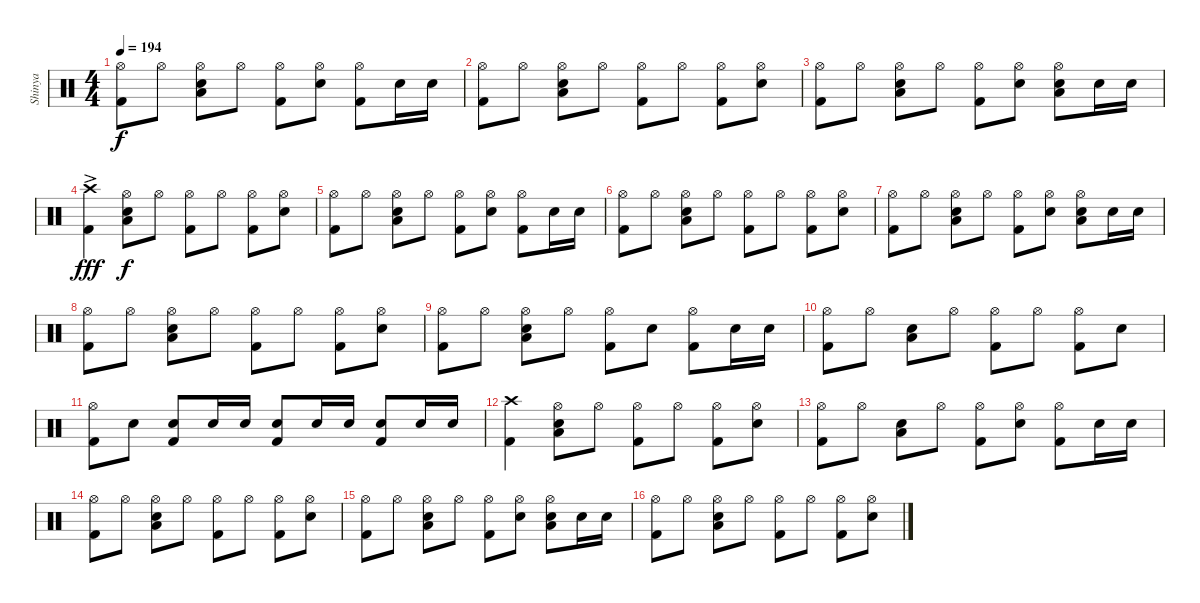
\track ("Shinya" "Shinya") {instrument percussion}
\staff {score}
\articulation defaults
\ts (4 4)
\tempo 194
\clef neutral
\ks c
("Hi-Hat (open)" "Kick (hit) 2").8{dy f} "Hi-Hat (open)".8 ("Hi-Hat (open)" "Snare (hit) 2" "Low Floor Tom (hit)").8 "Hi-Hat (open)".8 ("Hi-Hat (open)" "Kick (hit) 2").8 ("Hi-Hat (open)" "Snare (hit) 2").8 ("Hi-Hat (open)" "Kick (hit) 2").8 "Snare (hit) 2".16 "Snare (hit) 2".16 |
("Hi-Hat (open)" "Kick (hit) 2").8 "Hi-Hat (open)".8 ("Hi-Hat (open)" "Snare (hit) 2" "Low Floor Tom (hit)").8 "Hi-Hat (open)".8 ("Hi-Hat (open)" "Kick (hit) 2").8 "Hi-Hat (open)".8 ("Hi-Hat (open)" "Kick (hit) 2").8 ("Hi-Hat (open)" "Snare (hit) 2").8 |
("Hi-Hat (open)" "Kick (hit) 2").8 "Hi-Hat (open)".8 ("Hi-Hat (open)" "Snare (hit) 2" "Low Floor Tom (hit)").8 "Hi-Hat (open)".8 ("Hi-Hat (open)" "Kick (hit) 2").8 ("Hi-Hat (open)" "Snare (hit) 2").8 ("Hi-Hat (open)" "Snare (hit) 2" "Low Floor Tom (hit)").8 "Snare (hit) 2".16 "Snare (hit) 2".16 |
("Crash high (hit)"{ac} "Kick (hit) 2").4{dy fff} ("Hi-Hat (open)" "Snare (hit) 2" "Low Floor Tom (hit)").8{dy f} "Hi-Hat (open)".8 ("Hi-Hat (open)" "Kick (hit) 2").8 "Hi-Hat (open)".8 ("Hi-Hat (open)" "Kick (hit) 2").8 ("Hi-Hat (open)" "Snare (hit) 2").8 |
("Hi-Hat (open)" "Kick (hit) 2").8 "Hi-Hat (open)".8 ("Hi-Hat (open)" "Snare (hit) 2" "Low Floor Tom (hit)").8 "Hi-Hat (open)".8 ("Hi-Hat (open)" "Kick (hit) 2").8 ("Hi-Hat (open)" "Snare (hit) 2").8 ("Hi-Hat (open)" "Kick (hit) 2").8 "Snare (hit) 2".16 "Snare (hit) 2".16 |
("Hi-Hat (open)" "Kick (hit) 2").8 "Hi-Hat (open)".8 ("Hi-Hat (open)" "Snare (hit) 2" "Low Floor Tom (hit)").8 "Hi-Hat (open)".8 ("Hi-Hat (open)" "Kick (hit) 2").8 "Hi-Hat (open)".8 ("Hi-Hat (open)" "Kick (hit) 2").8 ("Hi-Hat (open)" "Snare (hit) 2").8 |
("Hi-Hat (open)" "Kick (hit) 2").8 "Hi-Hat (open)".8 ("Hi-Hat (open)" "Snare (hit) 2" "Low Floor Tom (hit)").8 "Hi-Hat (open)".8 ("Hi-Hat (open)" "Kick (hit) 2").8 ("Hi-Hat (open)" "Snare (hit) 2").8 ("Hi-Hat (open)" "Snare (hit) 2" "Low Floor Tom (hit)").8 "Snare (hit) 2".16 "Snare (hit) 2".16 |
("Hi-Hat (open)" "Kick (hit) 2").8 "Hi-Hat (open)".8 ("Hi-Hat (open)" "Snare (hit) 2" "Low Floor Tom (hit)").8 "Hi-Hat (open)".8 ("Hi-Hat (open)" "Kick (hit) 2").8 "Hi-Hat (open)".8 ("Hi-Hat (open)" "Kick (hit) 2").8 ("Hi-Hat (open)" "Snare (hit) 2").8 |
("Hi-Hat (open)" "Kick (hit) 2").8 "Hi-Hat (open)".8 ("Hi-Hat (open)" "Snare (hit) 2" "Low Floor Tom (hit)").8 "Hi-Hat (open)".8 ("Hi-Hat (open)" "Kick (hit) 2").8 "Snare (hit) 2".8 ("Hi-Hat (open)" "Kick (hit) 2").8 "Snare (hit) 2".16 "Snare (hit) 2".16 |
("Hi-Hat (open)" "Kick (hit) 2").8 "Hi-Hat (open)".8 ("Snare (hit) 2" "Low Floor Tom (hit)").8 "Hi-Hat (open)".8 ("Hi-Hat (open)" "Kick (hit) 2").8 "Hi-Hat (open)".8 ("Hi-Hat (open)" "Kick (hit) 2").8 "Snare (hit) 2".8 |
("Hi-Hat (open)" "Kick (hit) 2").8 "Snare (hit) 2".8 ("Snare (hit) 2" "Kick (hit) 2").8 "Snare (hit) 2".16 "Snare (hit) 2".16 ("Snare (hit) 2" "Kick (hit) 2").8 "Snare (hit) 2".16 "Snare (hit) 2".16 ("Snare (hit) 2" "Kick (hit) 2").8 "Snare (hit) 2".16 "Snare (hit) 2".16 |
("Crash high (hit)" "Kick (hit) 2").4 ("Hi-Hat (open)" "Snare (hit) 2" "Low Floor Tom (hit)").8 "Hi-Hat (open)".8 ("Hi-Hat (open)" "Kick (hit) 2").8 "Hi-Hat (open)".8 ("Hi-Hat (open)" "Kick (hit) 2").8 ("Hi-Hat (open)" "Snare (hit) 2").8 |
("Hi-Hat (open)" "Kick (hit) 2").8 "Hi-Hat (open)".8 ("Snare (hit) 2" "Low Floor Tom (hit)").8 "Hi-Hat (open)".8 ("Hi-Hat (open)" "Kick (hit) 2").8 ("Hi-Hat (open)" "Snare (hit) 2").8 ("Hi-Hat (open)" "Kick (hit) 2").8 "Snare (hit) 2".16 "Snare (hit) 2".16 |
("Hi-Hat (open)" "Kick (hit) 2").8 "Hi-Hat (open)".8 ("Hi-Hat (open)" "Snare (hit) 2" "Low Floor Tom (hit)").8 "Hi-Hat (open)".8 ("Hi-Hat (open)" "Kick (hit) 2").8 "Hi-Hat (open)".8 ("Hi-Hat (open)" "Kick (hit) 2").8 ("Hi-Hat (open)" "Snare (hit) 2").8 |
("Hi-Hat (open)" "Kick (hit) 2").8 "Hi-Hat (open)".8 ("Hi-Hat (open)" "Snare (hit) 2" "Low Floor Tom (hit)").8 "Hi-Hat (open)".8 ("Hi-Hat (open)" "Kick (hit) 2").8 ("Hi-Hat (open)" "Snare (hit) 2").8 ("Hi-Hat (open)" "Snare (hit) 2" "Low Floor Tom (hit)").8 "Snare (hit) 2".16 "Snare (hit) 2".16 |
("Hi-Hat (open)" "Kick (hit) 2").8 "Hi-Hat (open)".8 ("Hi-Hat (open)" "Snare (hit) 2" "Low Floor Tom (hit)").8 "Hi-Hat (open)".8 ("Hi-Hat (open)" "Kick (hit) 2").8 "Hi-Hat (open)".8 ("Hi-Hat (open)" "Kick (hit) 2").8 ("Hi-Hat (open)" "Snare (hit) 2").8
